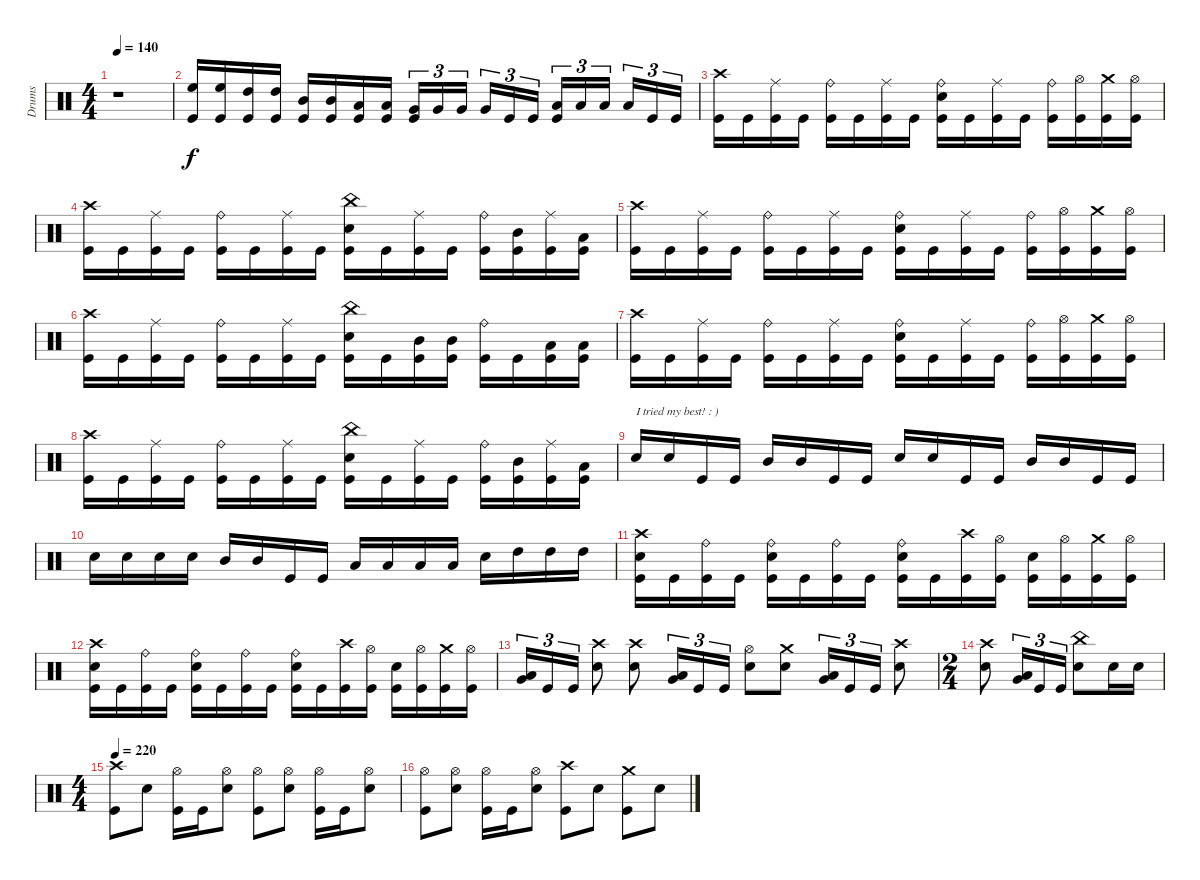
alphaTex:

\track ("Drums" "Drums") {instrument percussion}
\staff {score}
\articulation defaults
\ts (4 4)
\tempo 140
\clef neutral
\ks c
r.1{dy f} |
("High Floor Tom (hit)" "Kick (hit)").16 ("High Floor Tom (hit)" "Kick (hit)").16 ("High Tom (hit)" "Kick (hit)").16 ("High Tom (hit)" "Kick (hit)").16 ("Mid Tom (hit)" "Kick (hit)").16 ("Mid Tom (hit)" "Kick (hit)").16 ("Low Tom (hit)" "Kick (hit)").16 ("Low Tom (hit)" "Kick (hit)").16 ("Very Low Tom (hit)" "Kick (hit)").16{tu (3 2)} "Very Low Tom (hit)".16{tu (3 2)} "Very Low Tom (hit)".16{tu (3 2) beam splitsecondary} "Very Low Tom (hit)".16{tu (3 2)} "Kick (hit)".16{tu (3 2)} "Kick (hit)".16{tu (3 2)} ("Low Floor Tom (hit)" "Kick (hit)").16{tu (3 2)} "Low Floor Tom (hit)".16{tu (3 2)} "Low Floor Tom (hit)".16{tu (3 2) beam splitsecondary} "Low Floor Tom (hit)".16{tu (3 2)} "Kick (hit)".16{tu (3 2)} "Kick (hit)".16{tu (3 2)} |
("Crash high (hit)" "Kick (hit)").16 "Kick (hit)".16 ("Ride (middle)" "Kick (hit)").16 "Kick (hit)".16 ("Ride (bell)" "Kick (hit)").16 "Kick (hit)".16 ("Ride (middle)" "Kick (hit)").16 "Kick (hit)".16 ("Ride (bell)" "Snare (hit) 2" "Kick (hit)").16 "Kick (hit)".16 ("Ride (middle)" "Kick (hit)").16 "Kick (hit)".16 ("Ride (bell)" "Kick (hit)").16 ("Hi-Hat (open)" "Kick (hit)").16 ("Crash medium (hit)" "Kick (hit)").16 ("Hi-Hat (open)" "Kick (hit)").16 |
("Crash high (hit)" "Kick (hit)").16 "Kick (hit)".16 ("Ride (middle)" "Kick (hit)").16 "Kick (hit)".16 ("Ride (bell)" "Kick (hit)").16 "Kick (hit)".16 ("Ride (middle)" "Kick (hit)").16 "Kick (hit)".16 ("China (hit)" "Snare (hit) 2" "Kick (hit)").16 "Kick (hit)".16 ("Ride (middle)" "Kick (hit)").16 "Kick (hit)".16 ("Ride (bell)" "Kick (hit)").16 ("Mid Tom (hit)" "Kick (hit)").16 ("Ride (middle)" "Kick (hit)").16 ("Low Tom (hit)" "Kick (hit)").16 |
("Crash high (hit)" "Kick (hit)").16 "Kick (hit)".16 ("Ride (middle)" "Kick (hit)").16 "Kick (hit)".16 ("Ride (bell)" "Kick (hit)").16 "Kick (hit)".16 ("Ride (middle)" "Kick (hit)").16 "Kick (hit)".16 ("Ride (bell)" "Snare (hit) 2" "Kick (hit)").16 "Kick (hit)".16 ("Ride (middle)" "Kick (hit)").16 "Kick (hit)".16 ("Ride (bell)" "Kick (hit)").16 ("Hi-Hat (open)" "Kick (hit)").16 ("Crash medium (hit)" "Kick (hit)").16 ("Hi-Hat (open)" "Kick (hit)").16 |
("Crash high (hit)" "Kick (hit)").16 "Kick (hit)".16 ("Ride (middle)" "Kick (hit)").16 "Kick (hit)".16 ("Ride (bell)" "Kick (hit)").16 "Kick (hit)".16 ("Ride (middle)" "Kick (hit)").16 "Kick (hit)".16 ("China (hit)" "Snare (hit) 2" "Kick (hit)").16 "Kick (hit)".16 ("Mid Tom (hit)" "Kick (hit)").16 ("Mid Tom (hit)" "Kick (hit)").16 ("Ride (bell)" "Kick (hit)").16 "Kick (hit)".16 ("Low Tom (hit)" "Kick (hit)").16 ("Low Tom (hit)" "Kick (hit)").16 |
("Crash high (hit)" "Kick (hit)").16 "Kick (hit)".16 ("Ride (middle)" "Kick (hit)").16 "Kick (hit)".16 ("Ride (bell)" "Kick (hit)").16 "Kick (hit)".16 ("Ride (middle)" "Kick (hit)").16 "Kick (hit)".16 ("Ride (bell)" "Snare (hit) 2" "Kick (hit)").16 "Kick (hit)".16 ("Ride (middle)" "Kick (hit)").16 "Kick (hit)".16 ("Ride (bell)" "Kick (hit)").16 ("Hi-Hat (open)" "Kick (hit)").16 ("Crash medium (hit)" "Kick (hit)").16 ("Hi-Hat (open)" "Kick (hit)").16 |
("Crash high (hit)" "Kick (hit)").16 "Kick (hit)".16 ("Ride (middle)" "Kick (hit)").16 "Kick (hit)".16 ("Ride (bell)" "Kick (hit)").16 "Kick (hit)".16 ("Ride (middle)" "Kick (hit)").16 "Kick (hit)".16 ("China (hit)" "Snare (hit) 2" "Kick (hit)").16 "Kick (hit)".16 ("Ride (middle)" "Kick (hit)").16 "Kick (hit)".16 ("Ride (bell)" "Kick (hit)").16 ("Mid Tom (hit)" "Kick (hit)").16 ("Ride (middle)" "Kick (hit)").16 ("Low Tom (hit)" "Kick (hit)").16 |
"Snare (hit) 2".16{txt "I tried my best! : )"} "Snare (hit) 2".16 "Kick (hit)".16 "Kick (hit)".16 "Mid Tom (hit)".16 "Mid Tom (hit)".16 "Kick (hit)".16 "Kick (hit)".16 "Snare (hit) 2".16 "Snare (hit) 2".16 "Kick (hit)".16 "Kick (hit)".16 "Mid Tom (hit)".16 "Mid Tom (hit)".16 "Kick (hit)".16 "Kick (hit)".16 |
"Snare (hit) 2".16 "Snare (hit) 2".16 "Snare (hit) 2".16 "Snare (hit) 2".16 "Mid Tom (hit)".16 "Mid Tom (hit)".16 "Kick (hit)".16 "Kick (hit)".16 "Low Tom (hit)".16 "Low Tom (hit)".16 "Low Tom (hit)".16 "Low Tom (hit)".16 "Snare (hit) 2".16 "High Tom (hit)".16 "High Tom (hit)".16 "High Tom (hit)".16 |
("Crash high (hit)" "Snare (hit) 2" "Kick (hit)").16 "Kick (hit)".16 ("Ride (bell)" "Kick (hit)").16 "Kick (hit)".16 ("Ride (bell)" "Snare (hit) 2" "Kick (hit)").16 "Kick (hit)".16 ("Ride (bell)" "Kick (hit)").16 "Kick (hit)".16 ("Ride (bell)" "Snare (hit) 2" "Kick (hit)").16 "Kick (hit)".16 ("Crash high (hit)" "Kick (hit)").16 ("Hi-Hat (open)" "Kick (hit)").16 ("Snare (hit) 2" "Kick (hit)").16 ("Hi-Hat (open)" "Kick (hit)").16 ("Crash medium (hit)" "Kick (hit)").16 ("Hi-Hat (open)" "Kick (hit)").16 |
("Crash high (hit)" "Snare (hit) 2" "Kick (hit)").16 "Kick (hit)".16 ("Ride (bell)" "Kick (hit)").16 "Kick (hit)".16 ("Ride (bell)" "Snare (hit) 2" "Kick (hit)").16 "Kick (hit)".16 ("Ride (bell)" "Kick (hit)").16 "Kick (hit)".16 ("Ride (bell)" "Snare (hit) 2" "Kick (hit)").16 "Kick (hit)".16 ("Crash high (hit)" "Kick (hit)").16 ("Hi-Hat (open)" "Kick (hit)").16 ("Snare (hit) 2" "Kick (hit)").16 ("Hi-Hat (open)" "Kick (hit)").16 ("Crash medium (hit)" "Kick (hit)").16 ("Hi-Hat (open)" "Kick (hit)").16 |
("Very Low Tom (hit)" "Low Tom (hit)").16{tu (3 2)} "Kick (hit)".16{tu (3 2)} "Kick (hit)".16{tu (3 2)} ("Crash high (hit)" "Snare (hit) 2").8 ("Crash high (hit)" "Snare (hit) 2").8 ("Very Low Tom (hit)" "Low Tom (hit)").16{tu (3 2)} "Kick (hit)".16{tu (3 2)} "Kick (hit)".16{tu (3 2)} ("Hi-Hat (open)" "Snare (hit) 2").8 ("Crash medium (hit)" "Snare (hit) 2").8 ("Very Low Tom (hit)" "Low Tom (hit)").16{tu (3 2)} "Kick (hit)".16{tu (3 2)} "Kick (hit)".16{tu (3 2)} ("Crash high (hit)" "Snare (hit) 2").8 |
\ts (2 4)
("Crash high (hit)" "Snare (hit) 2").8 ("Very Low Tom (hit)" "Low Tom (hit)").16{tu (3 2)} "Kick (hit)".16{tu (3 2)} "Kick (hit)".16{tu (3 2)} ("China (hit)" "Snare (hit) 2").8 "Snare (hit) 2".16 "Snare (hit) 2".16 |
\ts (4 4)
\tempo 220
("Crash high (hit)" "Kick (hit)").8 "Snare (hit) 2".8 ("Hi-Hat (open)" "Kick (hit)").16 "Kick (hit)".16 ("Hi-Hat (open)" "Snare (hit) 2").8 ("Hi-Hat (open)" "Kick (hit)").8 ("Hi-Hat (open)" "Snare (hit) 2").8 ("Hi-Hat (open)" "Kick (hit)").16 "Kick (hit)".16 ("Hi-Hat (open)" "Snare (hit) 2").8 |
("Hi-Hat (open)" "Kick (hit)").8 ("Hi-Hat (open)" "Snare (hit) 2").8 ("Hi-Hat (open)" "Kick (hit)").16 "Kick (hit)".16 ("Hi-Hat (open)" "Snare (hit) 2").8 ("Crash high (hit)" "Kick (hit)").8 "Snare (hit) 2".8 ("Crash medium (hit)" "Kick (hit)").8 "Snare (hit) 2".8
